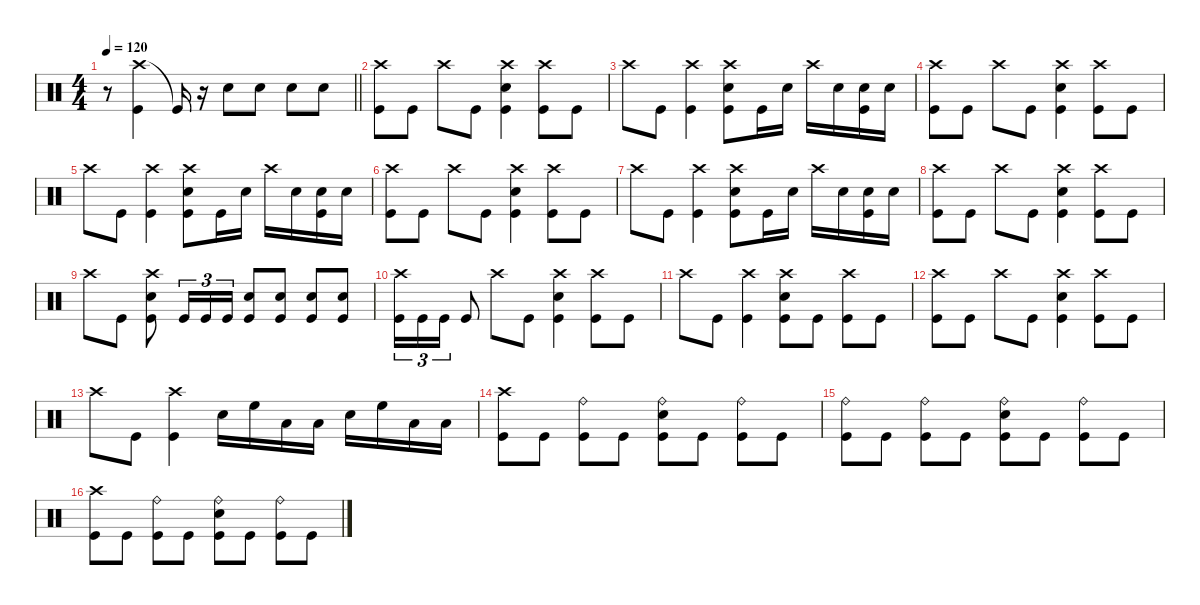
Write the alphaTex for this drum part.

\defaultSystemsLayout 4
\hideDynamics
\bracketExtendMode nobrackets
\singleTrackTrackNamePolicy hidden
\multiTrackTrackNamePolicy hidden
\firstSystemTrackNameMode fullname
\firstSystemTrackNameOrientation horizontal
\otherSystemsTrackNameOrientation horizontal
\track ("Drums" "drm.") {instrument percussion}
\staff {score}
\articulation defaults
\ts (4 4)
\tempo 120
\clef neutral
\barLineRight lightlight
\ks c
r.8{dy f beam Down} ("Crash high (hit)" "Kick (hit)").4{beam Down} "Kick (hit)"{t}.16{beam Up} r.16{beam Up} "Snare (hit) 2".8{beam Down} "Snare (hit) 2".8{beam Down} "Snare (hit) 2".8{beam Down} "Snare (hit) 2".8{beam Down} |
("Kick (hit)" "Crash high (hit)").8{beam Down} "Kick (hit)".8{beam Down} "Crash high (hit)".8{beam Down} "Kick (hit)".8{beam Down} ("Kick (hit)" "Snare (hit) 2" "Crash high (hit)").4{beam Down} ("Kick (hit)" "Crash high (hit)").8{beam Down} "Kick (hit)".8{beam Down} |
"Crash high (hit)".8{beam Down} "Kick (hit)".8{beam Down} ("Kick (hit)" "Crash high (hit)").4{beam Down} ("Kick (hit)" "Snare (hit) 2" "Crash high (hit)").8{beam Down} "Kick (hit)".16{beam Down} "Snare (hit) 2".16{beam Down} "Crash high (hit)".16{beam Down} "Snare (hit) 2".16{beam Down} ("Snare (hit) 2" "Kick (hit)").16{beam Down} "Snare (hit) 2".16{beam Down} |
("Crash high (hit)" "Kick (hit)").8{beam Down} "Kick (hit)".8{beam Down} "Crash high (hit)".8{beam Down} "Kick (hit)".8{beam Down} ("Snare (hit) 2" "Crash high (hit)" "Kick (hit)").4{beam Down} ("Crash high (hit)" "Kick (hit)").8{beam Down} "Kick (hit)".8{beam Down} |
"Crash high (hit)".8{beam Down} "Kick (hit)".8{beam Down} ("Kick (hit)" "Crash high (hit)").4{beam Down} ("Kick (hit)" "Snare (hit) 2" "Crash high (hit)").8{beam Down} "Kick (hit)".16{beam Down} "Snare (hit) 2".16{beam Down} "Crash high (hit)".16{beam Down} "Snare (hit) 2".16{beam Down} ("Kick (hit)" "Snare (hit) 2").16{beam Down} "Snare (hit) 2".16{beam Down} |
("Crash high (hit)" "Kick (hit)").8{beam Down} "Kick (hit)".8{beam Down} "Crash high (hit)".8{beam Down} "Kick (hit)".8{beam Down} ("Snare (hit) 2" "Crash high (hit)" "Kick (hit)").4{beam Down} ("Crash high (hit)" "Kick (hit)").8{beam Down} "Kick (hit)".8{beam Down} |
"Crash high (hit)".8{beam Down} "Kick (hit)".8{beam Down} ("Crash high (hit)" "Kick (hit)").4{beam Down} ("Snare (hit) 2" "Crash high (hit)" "Kick (hit)").8{beam Down} "Kick (hit)".16{beam Down} "Snare (hit) 2".16{beam Down} "Crash high (hit)".16{beam Down} "Snare (hit) 2".16{beam Down} ("Kick (hit)" "Snare (hit) 2").16{beam Down} "Snare (hit) 2".16{beam Down} |
("Crash high (hit)" "Kick (hit)").8{beam Down} "Kick (hit)".8{beam Down} "Crash high (hit)".8{beam Down} "Kick (hit)".8{beam Down} ("Snare (hit) 2" "Crash high (hit)" "Kick (hit)").4{beam Down} ("Crash high (hit)" "Kick (hit)").8{beam Down} "Kick (hit)".8{beam Down} |
"Crash high (hit)".8{beam Down} "Kick (hit)".8{beam Down} ("Snare (hit) 2" "Crash high (hit)" "Kick (hit)").8{beam Down} "Kick (hit)".16{tu (3 2) beam Up} "Kick (hit)".16{tu (3 2) beam Up} "Kick (hit)".16{tu (3 2) beam Up} ("Kick (hit)" "Snare (hit) 2").8{beam Up} ("Kick (hit)" "Snare (hit) 2").8{beam Up} ("Kick (hit)" "Snare (hit) 2").8{beam Up} ("Kick (hit)" "Snare (hit) 2").8{beam Up} |
("Kick (hit)" "Crash high (hit)").16{tu (3 2) beam Down} "Kick (hit)".16{tu (3 2) beam Down} "Kick (hit)".16{tu (3 2) beam Down} "Kick (hit)".8{beam Up} "Crash high (hit)".8{beam Down} "Kick (hit)".8{beam Down} ("Snare (hit) 2" "Crash high (hit)" "Kick (hit)").4{beam Down} ("Crash high (hit)" "Kick (hit)").8{beam Down} "Kick (hit)".8{beam Down} |
"Crash high (hit)".8{beam Down} "Kick (hit)".8{beam Down} ("Kick (hit)" "Crash high (hit)").4{beam Down} ("Kick (hit)" "Snare (hit) 2" "Crash high (hit)").8{beam Down} "Kick (hit)".8{beam Down} ("Crash high (hit)" "Kick (hit)").8{beam Down} "Kick (hit)".8{beam Down} |
("Crash high (hit)" "Kick (hit)").8{beam Down} "Kick (hit)".8{beam Down} "Crash high (hit)".8{beam Down} "Kick (hit)".8{beam Down} ("Snare (hit) 2" "Crash high (hit)" "Kick (hit)").4{beam Down} ("Crash high (hit)" "Kick (hit)").8{beam Down} "Kick (hit)".8{beam Down} |
"Crash high (hit)".8{beam Down} "Kick (hit)".8{beam Down} ("Crash high (hit)" "Kick (hit)").4{beam Down} "Snare (hit) 2".16{beam Down} "High Floor Tom (hit)".16{beam Down} "Low Tom (hit)".16{beam Down} "Low Floor Tom (hit)".16{beam Down} "Snare (hit) 2".16{beam Down} "High Floor Tom (hit)".16{beam Down} "Low Tom (hit)".16{beam Down} "Low Floor Tom (hit)".16{beam Down} |
("Kick (hit)" "Crash high (hit)").8{beam Down} "Kick (hit)".8{beam Down} ("Kick (hit)" "Ride (bell)").8{beam Down} "Kick (hit)".8{beam Down} ("Kick (hit)" "Snare (hit) 2" "Ride (bell)").8{beam Down} "Kick (hit)".8{beam Down} ("Kick (hit)" "Ride (bell)").8{beam Down} "Kick (hit)".8{beam Down} |
("Ride (bell)" "Kick (hit)").8{beam Down} "Kick (hit)".8{beam Down} ("Ride (bell)" "Kick (hit)").8{beam Down} "Kick (hit)".8{beam Down} ("Snare (hit) 2" "Ride (bell)" "Kick (hit)").8{beam Down} "Kick (hit)".8{beam Down} ("Ride (bell)" "Kick (hit)").8{beam Down} "Kick (hit)".8{beam Down} |
("Crash high (hit)" "Kick (hit)").8{beam Down} "Kick (hit)".8{beam Down} ("Ride (bell)" "Kick (hit)").8{beam Down} "Kick (hit)".8{beam Down} ("Snare (hit) 2" "Ride (bell)" "Kick (hit)").8{beam Down} "Kick (hit)".8{beam Down} ("Ride (bell)" "Kick (hit)").8{beam Down} "Kick (hit)".8{beam Down}
